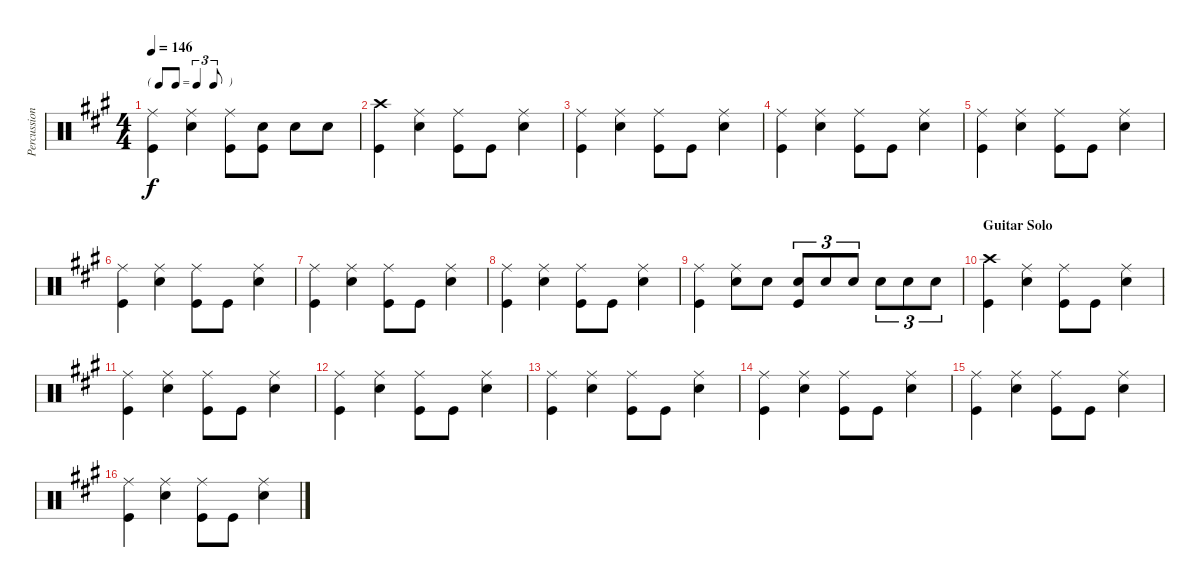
\track ("Percussion" "Percussion") {instrument percussion}
\staff {score}
\articulation defaults
\ts (4 4)
\tf triplet8th
\tempo 146
\clef neutral
\ks a
("Ride (middle)" "Kick (hit)").4{dy f} ("Ride (middle)" "Snare (hit) 2").4 ("Ride (middle)" "Kick (hit)").8 ("Snare (hit) 2" "Kick (hit)").8 "Snare (hit) 2".8 "Snare (hit) 2".8 |
("Crash high (hit)" "Kick (hit)").4 ("Ride (middle)" "Snare (hit) 2").4 ("Ride (middle)" "Kick (hit)").8 "Kick (hit)".8 ("Ride (middle)" "Snare (hit) 2").4 |
("Ride (middle)" "Kick (hit)").4 ("Ride (middle)" "Snare (hit) 2").4 ("Ride (middle)" "Kick (hit)").8 "Kick (hit)".8 ("Ride (middle)" "Snare (hit) 2").4 |
("Ride (middle)" "Kick (hit)").4 ("Ride (middle)" "Snare (hit) 2").4 ("Ride (middle)" "Kick (hit)").8 "Kick (hit)".8 ("Ride (middle)" "Snare (hit) 2").4 |
("Ride (middle)" "Kick (hit)").4 ("Ride (middle)" "Snare (hit) 2").4 ("Ride (middle)" "Kick (hit)").8 "Kick (hit)".8 ("Ride (middle)" "Snare (hit) 2").4 |
("Ride (middle)" "Kick (hit)").4 ("Ride (middle)" "Snare (hit) 2").4 ("Ride (middle)" "Kick (hit)").8 "Kick (hit)".8 ("Ride (middle)" "Snare (hit) 2").4 |
("Ride (middle)" "Kick (hit)").4 ("Ride (middle)" "Snare (hit) 2").4 ("Ride (middle)" "Kick (hit)").8 "Kick (hit)".8 ("Ride (middle)" "Snare (hit) 2").4 |
("Ride (middle)" "Kick (hit)").4 ("Ride (middle)" "Snare (hit) 2").4 ("Ride (middle)" "Kick (hit)").8 "Kick (hit)".8 ("Ride (middle)" "Snare (hit) 2").4 |
("Ride (middle)" "Kick (hit)").4 ("Ride (middle)" "Snare (hit) 2").8 "Snare (hit) 2".8 ("Snare (hit) 2" "Kick (hit)").8{tu (3 2)} "Snare (hit) 2".8{tu (3 2)} "Snare (hit) 2".8{tu (3 2)} "Snare (hit) 2".8{tu (3 2)} "Snare (hit) 2".8{tu (3 2)} "Snare (hit) 2".8{tu (3 2)} |
\section ("" "Guitar Solo")
("Crash high (hit)" "Kick (hit)").4 ("Ride (middle)" "Snare (hit) 2").4 ("Ride (middle)" "Kick (hit)").8 "Kick (hit)".8 ("Ride (middle)" "Snare (hit) 2").4 |
("Ride (middle)" "Kick (hit)").4 ("Ride (middle)" "Snare (hit) 2").4 ("Ride (middle)" "Kick (hit)").8 "Kick (hit)".8 ("Ride (middle)" "Snare (hit) 2").4 |
("Ride (middle)" "Kick (hit)").4 ("Ride (middle)" "Snare (hit) 2").4 ("Ride (middle)" "Kick (hit)").8 "Kick (hit)".8 ("Ride (middle)" "Snare (hit) 2").4 |
("Ride (middle)" "Kick (hit)").4 ("Ride (middle)" "Snare (hit) 2").4 ("Ride (middle)" "Kick (hit)").8 "Kick (hit)".8 ("Ride (middle)" "Snare (hit) 2").4 |
("Ride (middle)" "Kick (hit)").4 ("Ride (middle)" "Snare (hit) 2").4 ("Ride (middle)" "Kick (hit)").8 "Kick (hit)".8 ("Ride (middle)" "Snare (hit) 2").4 |
("Ride (middle)" "Kick (hit)").4 ("Ride (middle)" "Snare (hit) 2").4 ("Ride (middle)" "Kick (hit)").8 "Kick (hit)".8 ("Ride (middle)" "Snare (hit) 2").4 |
("Ride (middle)" "Kick (hit)").4 ("Ride (middle)" "Snare (hit) 2").4 ("Ride (middle)" "Kick (hit)").8 "Kick (hit)".8 ("Ride (middle)" "Snare (hit) 2").4
